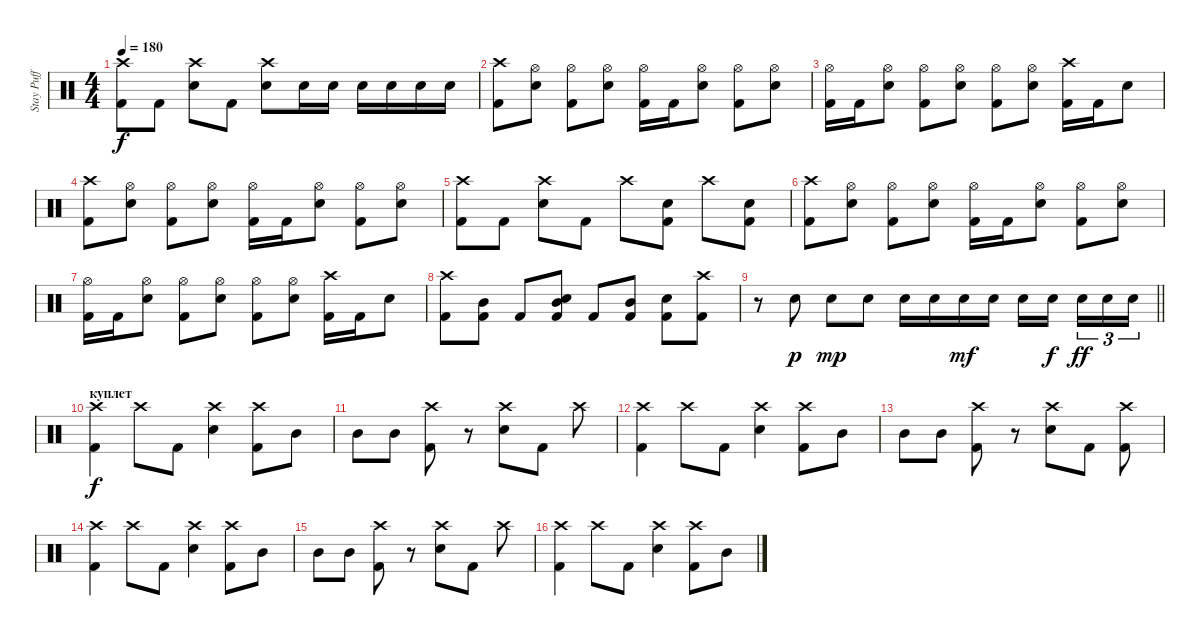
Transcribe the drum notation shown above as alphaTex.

\track ("Stay Puff" "Stay Puff") {instrument percussion}
\staff {score}
\articulation defaults
\ts (4 4)
\tempo 180
\clef neutral
\ks c
("Crash high (hit)" "Kick (hit) 2").8{dy f} "Kick (hit) 2".8 ("Crash high (hit)" "Snare (hit) 2").8 "Kick (hit) 2".8 ("Crash high (hit)" "Snare (hit) 2").8 "Snare (hit) 2".16 "Snare (hit) 2".16 "Snare (hit) 2".16 "Snare (hit) 2".16 "Snare (hit) 2".16 "Snare (hit) 2".16 |
("Crash high (hit)" "Kick (hit) 2").8 ("Hi-Hat (open)" "Snare (hit) 2").8 ("Hi-Hat (open)" "Kick (hit) 2").8 ("Hi-Hat (open)" "Snare (hit) 2").8 ("Hi-Hat (open)" "Kick (hit) 2").16 "Kick (hit) 2".16 ("Hi-Hat (open)" "Snare (hit) 2").8 ("Hi-Hat (open)" "Kick (hit) 2").8 ("Hi-Hat (open)" "Snare (hit) 2").8 |
("Hi-Hat (open)" "Kick (hit) 2").16 "Kick (hit) 2".16 ("Hi-Hat (open)" "Snare (hit) 2").8 ("Hi-Hat (open)" "Kick (hit) 2").8 ("Hi-Hat (open)" "Snare (hit) 2").8 ("Hi-Hat (open)" "Kick (hit) 2").8 ("Hi-Hat (open)" "Snare (hit) 2").8 ("Crash high (hit)" "Kick (hit) 2").16 "Kick (hit) 2".16 "Snare (hit) 2".8 |
("Crash high (hit)" "Kick (hit) 2").8 ("Hi-Hat (open)" "Snare (hit) 2").8 ("Hi-Hat (open)" "Kick (hit) 2").8 ("Hi-Hat (open)" "Snare (hit) 2").8 ("Hi-Hat (open)" "Kick (hit) 2").16 "Kick (hit) 2".16 ("Hi-Hat (open)" "Snare (hit) 2").8 ("Hi-Hat (open)" "Kick (hit) 2").8 ("Hi-Hat (open)" "Snare (hit) 2").8 |
("Crash high (hit)" "Kick (hit) 2").8 "Kick (hit) 2".8 ("Crash high (hit)" "Snare (hit) 2").8 "Kick (hit) 2".8 "Crash high (hit)".8 ("Snare (hit) 2" "Kick (hit) 2").8 "Crash high (hit)".8 ("Snare (hit) 2" "Kick (hit) 2").8 |
("Crash high (hit)" "Kick (hit) 2").8 ("Hi-Hat (open)" "Snare (hit) 2").8 ("Hi-Hat (open)" "Kick (hit) 2").8 ("Hi-Hat (open)" "Snare (hit) 2").8 ("Hi-Hat (open)" "Kick (hit) 2").16 "Kick (hit) 2".16 ("Hi-Hat (open)" "Snare (hit) 2").8 ("Hi-Hat (open)" "Kick (hit) 2").8 ("Hi-Hat (open)" "Snare (hit) 2").8 |
("Hi-Hat (open)" "Kick (hit) 2").16 "Kick (hit) 2".16 ("Hi-Hat (open)" "Snare (hit) 2").8 ("Hi-Hat (open)" "Kick (hit) 2").8 ("Hi-Hat (open)" "Snare (hit) 2").8 ("Hi-Hat (open)" "Kick (hit) 2").8 ("Hi-Hat (open)" "Snare (hit) 2").8 ("Crash high (hit)" "Kick (hit) 2").16 "Kick (hit) 2".16 "Snare (hit) 2".8 |
("Crash high (hit)" "Kick (hit) 2").8 ("Mid Tom (hit)" "Kick (hit) 2").8 "Kick (hit) 2".8 ("Mid Tom (hit)" "Snare (hit) 2" "Kick (hit) 2").8 "Kick (hit) 2".8 ("Mid Tom (hit)" "Kick (hit) 2").8 ("Snare (hit) 2" "Kick (hit) 2").8 ("Crash high (hit)" "Kick (hit) 2").8 |
\barLineRight lightlight
r.8 "Snare (hit) 2".8{dy p} "Snare (hit) 2".8{dy mp} "Snare (hit) 2".8 "Snare (hit) 2".16 "Snare (hit) 2".16 "Snare (hit) 2".16{dy mf} "Snare (hit) 2".16 "Snare (hit) 2".16 "Snare (hit) 2".16{dy f beam splitsecondary} "Snare (hit) 2".16{tu (3 2) dy ff} "Snare (hit) 2".16{tu (3 2)} "Snare (hit) 2".16{tu (3 2)} |
\section ("" "куплет")
("Crash high (hit)" "Kick (hit) 2").4{dy f} "Crash high (hit)".8 "Kick (hit) 2".8 ("Crash high (hit)" "Snare (hit) 2").4 ("Crash high (hit)" "Kick (hit) 2").8 "Mid Tom (hit)".8 |
"Mid Tom (hit)".8 "Mid Tom (hit)".8 ("Crash high (hit)" "Kick (hit) 2").8 r.8 ("Crash high (hit)" "Snare (hit) 2").8 "Kick (hit) 2".8 "Crash high (hit)".8 |
("Crash high (hit)" "Kick (hit) 2").4 "Crash high (hit)".8 "Kick (hit) 2".8 ("Crash high (hit)" "Snare (hit) 2").4 ("Crash high (hit)" "Kick (hit) 2").8 "Mid Tom (hit)".8 |
"Mid Tom (hit)".8 "Mid Tom (hit)".8 ("Crash high (hit)" "Kick (hit) 2").8 r.8 ("Crash high (hit)" "Snare (hit) 2").8 "Kick (hit) 2".8 ("Crash high (hit)" "Kick (hit) 2").8 |
("Crash high (hit)" "Kick (hit) 2").4 "Crash high (hit)".8 "Kick (hit) 2".8 ("Crash high (hit)" "Snare (hit) 2").4 ("Crash high (hit)" "Kick (hit) 2").8 "Mid Tom (hit)".8 |
"Mid Tom (hit)".8 "Mid Tom (hit)".8 ("Crash high (hit)" "Kick (hit) 2").8 r.8 ("Crash high (hit)" "Snare (hit) 2").8 "Kick (hit) 2".8 "Crash high (hit)".8 |
("Crash high (hit)" "Kick (hit) 2").4 "Crash high (hit)".8 "Kick (hit) 2".8 ("Crash high (hit)" "Snare (hit) 2").4 ("Crash high (hit)" "Kick (hit) 2").8 "Mid Tom (hit)".8
